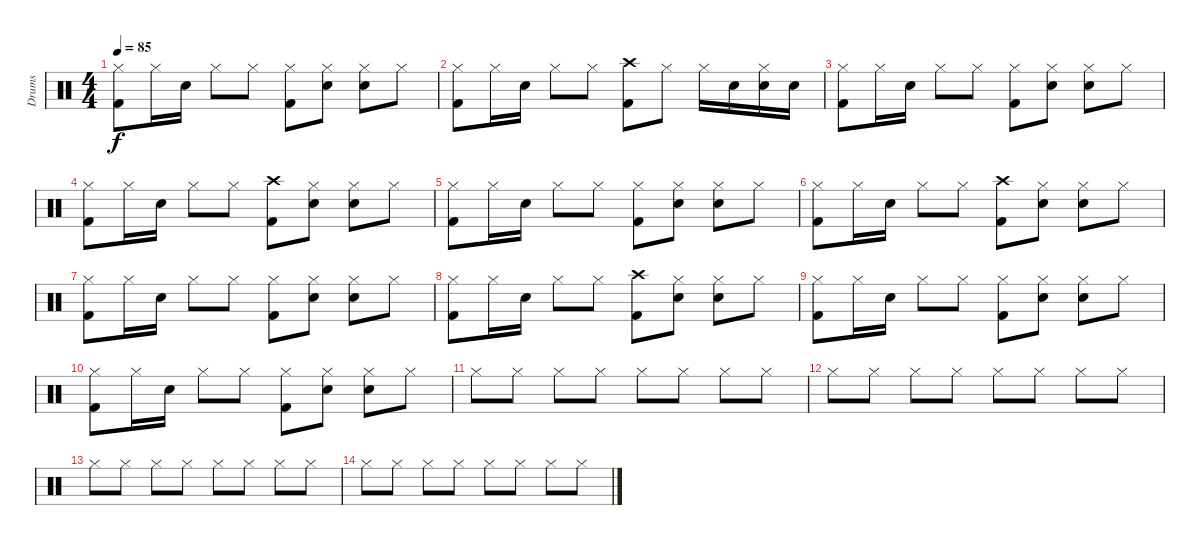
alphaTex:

\track ("Drums" "Drums") {instrument percussion}
\staff {score}
\articulation defaults
\ts (4 4)
\tempo 85
\clef neutral
\ks c
("Hi-Hat (closed)" "Kick (hit) 2").8{dy f} "Hi-Hat (closed)".16 "Snare (hit) 2".16 "Hi-Hat (closed)".8 "Hi-Hat (closed)".8 ("Hi-Hat (closed)" "Kick (hit) 2").8 ("Hi-Hat (closed)" "Snare (hit) 2").8 ("Hi-Hat (closed)" "Snare (hit) 2").8 "Hi-Hat (closed)".8 |
("Hi-Hat (closed)" "Kick (hit) 2").8 "Hi-Hat (closed)".16 "Snare (hit) 2".16 "Hi-Hat (closed)".8 "Hi-Hat (closed)".8 ("Crash high (hit)" "Kick (hit) 2").8 "Hi-Hat (closed)".8 "Hi-Hat (closed)".16 "Snare (hit) 2".16 ("Hi-Hat (closed)" "Snare (hit) 2").16 "Snare (hit) 2".16 |
("Hi-Hat (closed)" "Kick (hit) 2").8 "Hi-Hat (closed)".16 "Snare (hit) 2".16 "Hi-Hat (closed)".8 "Hi-Hat (closed)".8 ("Hi-Hat (closed)" "Kick (hit) 2").8 ("Hi-Hat (closed)" "Snare (hit) 2").8 ("Hi-Hat (closed)" "Snare (hit) 2").8 "Hi-Hat (closed)".8 |
("Hi-Hat (closed)" "Kick (hit) 2").8 "Hi-Hat (closed)".16 "Snare (hit) 2".16 "Hi-Hat (closed)".8 "Hi-Hat (closed)".8 ("Crash high (hit)" "Kick (hit) 2").8 ("Hi-Hat (closed)" "Snare (hit) 2").8 ("Hi-Hat (closed)" "Snare (hit) 2").8 "Hi-Hat (closed)".8 |
("Hi-Hat (closed)" "Kick (hit) 2").8 "Hi-Hat (closed)".16 "Snare (hit) 2".16 "Hi-Hat (closed)".8 "Hi-Hat (closed)".8 ("Hi-Hat (closed)" "Kick (hit) 2").8 ("Hi-Hat (closed)" "Snare (hit) 2").8 ("Hi-Hat (closed)" "Snare (hit) 2").8 "Hi-Hat (closed)".8 |
("Hi-Hat (closed)" "Kick (hit) 2").8 "Hi-Hat (closed)".16 "Snare (hit) 2".16 "Hi-Hat (closed)".8 "Hi-Hat (closed)".8 ("Crash high (hit)" "Kick (hit) 2").8 ("Hi-Hat (closed)" "Snare (hit) 2").8 ("Hi-Hat (closed)" "Snare (hit) 2").8 "Hi-Hat (closed)".8 |
("Hi-Hat (closed)" "Kick (hit) 2").8 "Hi-Hat (closed)".16 "Snare (hit) 2".16 "Hi-Hat (closed)".8 "Hi-Hat (closed)".8 ("Hi-Hat (closed)" "Kick (hit) 2").8 ("Hi-Hat (closed)" "Snare (hit) 2").8 ("Hi-Hat (closed)" "Snare (hit) 2").8 "Hi-Hat (closed)".8 |
("Hi-Hat (closed)" "Kick (hit) 2").8 "Hi-Hat (closed)".16 "Snare (hit) 2".16 "Hi-Hat (closed)".8 "Hi-Hat (closed)".8 ("Crash high (hit)" "Kick (hit) 2").8 ("Hi-Hat (closed)" "Snare (hit) 2").8 ("Hi-Hat (closed)" "Snare (hit) 2").8 "Hi-Hat (closed)".8 |
("Hi-Hat (closed)" "Kick (hit) 2").8 "Hi-Hat (closed)".16 "Snare (hit) 2".16 "Hi-Hat (closed)".8 "Hi-Hat (closed)".8 ("Hi-Hat (closed)" "Kick (hit) 2").8 ("Hi-Hat (closed)" "Snare (hit) 2").8 ("Hi-Hat (closed)" "Snare (hit) 2").8 "Hi-Hat (closed)".8 |
("Hi-Hat (closed)" "Kick (hit) 2").8 "Hi-Hat (closed)".16 "Snare (hit) 2".16 "Hi-Hat (closed)".8 "Hi-Hat (closed)".8 ("Hi-Hat (closed)" "Kick (hit) 2").8 ("Hi-Hat (closed)" "Snare (hit) 2").8 ("Hi-Hat (closed)" "Snare (hit) 2").8 "Hi-Hat (closed)".8 |
"Hi-Hat (closed)".8 "Hi-Hat (closed)".8 "Hi-Hat (closed)".8 "Hi-Hat (closed)".8 "Hi-Hat (closed)".8 "Hi-Hat (closed)".8 "Hi-Hat (closed)".8 "Hi-Hat (closed)".8 |
"Hi-Hat (closed)".8 "Hi-Hat (closed)".8 "Hi-Hat (closed)".8 "Hi-Hat (closed)".8 "Hi-Hat (closed)".8 "Hi-Hat (closed)".8 "Hi-Hat (closed)".8 "Hi-Hat (closed)".8 |
"Hi-Hat (closed)".8 "Hi-Hat (closed)".8 "Hi-Hat (closed)".8 "Hi-Hat (closed)".8 "Hi-Hat (closed)".8 "Hi-Hat (closed)".8 "Hi-Hat (closed)".8 "Hi-Hat (closed)".8 |
"Hi-Hat (closed)".8 "Hi-Hat (closed)".8 "Hi-Hat (closed)".8 "Hi-Hat (closed)".8 "Hi-Hat (closed)".8 "Hi-Hat (closed)".8 "Hi-Hat (closed)".8 "Hi-Hat (closed)".8
